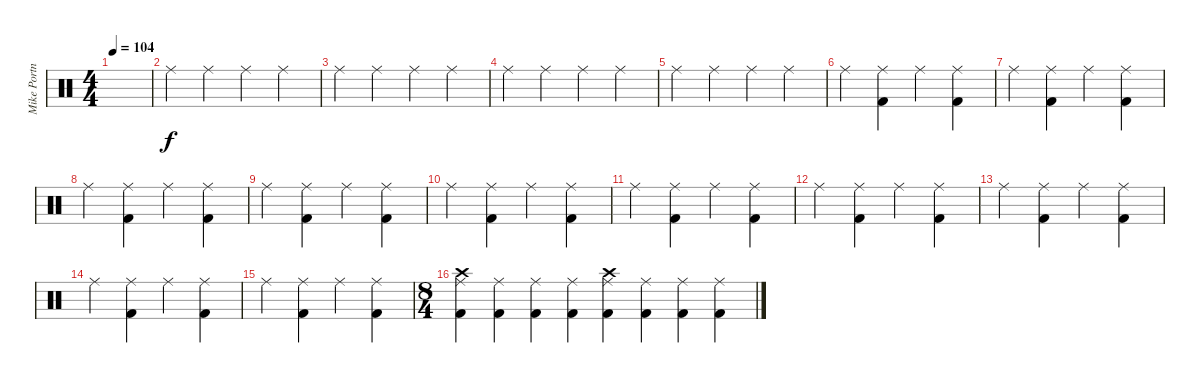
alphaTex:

\track ("Mike Portnoy" "Mike Portn") {instrument percussion}
\staff {score}
\articulation defaults
\ts (4 4)
\tempo 104
\clef neutral
\ks c
|
"Ride (middle)".4 "Ride (middle)".4 "Ride (middle)".4 "Ride (middle)".4 |
"Ride (middle)".4 "Ride (middle)".4 "Ride (middle)".4 "Ride (middle)".4 |
"Ride (middle)".4 "Ride (middle)".4 "Ride (middle)".4 "Ride (middle)".4 |
"Ride (middle)".4 "Ride (middle)".4 "Ride (middle)".4 "Ride (middle)".4 |
"Ride (middle)".4 ("Ride (middle)" "Kick (hit) 2").4 "Ride (middle)".4 ("Ride (middle)" "Kick (hit) 2").4 |
"Ride (middle)".4 ("Ride (middle)" "Kick (hit) 2").4 "Ride (middle)".4 ("Ride (middle)" "Kick (hit) 2").4 |
"Ride (middle)".4 ("Ride (middle)" "Kick (hit) 2").4 "Ride (middle)".4 ("Ride (middle)" "Kick (hit) 2").4 |
"Ride (middle)".4 ("Ride (middle)" "Kick (hit) 2").4 "Ride (middle)".4 ("Ride (middle)" "Kick (hit) 2").4 |
"Ride (middle)".4 ("Ride (middle)" "Kick (hit) 2").4 "Ride (middle)".4 ("Ride (middle)" "Kick (hit) 2").4 |
"Ride (middle)".4 ("Ride (middle)" "Kick (hit) 2").4 "Ride (middle)".4 ("Ride (middle)" "Kick (hit) 2").4 |
"Ride (middle)".4 ("Ride (middle)" "Kick (hit) 2").4 "Ride (middle)".4 ("Ride (middle)" "Kick (hit) 2").4 |
"Ride (middle)".4 ("Ride (middle)" "Kick (hit) 2").4 "Ride (middle)".4 ("Ride (middle)" "Kick (hit) 2").4 |
"Ride (middle)".4 ("Ride (middle)" "Kick (hit) 2").4 "Ride (middle)".4 ("Ride (middle)" "Kick (hit) 2").4 |
"Ride (middle)".4 ("Ride (middle)" "Kick (hit) 2").4 "Ride (middle)".4 ("Ride (middle)" "Kick (hit) 2").4 |
\ts (8 4)
("Ride (middle)" "Crash high (hit)" "Kick (hit) 2").4 ("Ride (middle)" "Kick (hit) 2").4 ("Ride (middle)" "Kick (hit) 2").4 ("Ride (middle)" "Kick (hit) 2").4 ("Ride (middle)" "Crash high (hit)" "Kick (hit) 2").4 ("Ride (middle)" "Kick (hit) 2").4 ("Ride (middle)" "Kick (hit) 2").4 ("Ride (middle)" "Kick (hit) 2").4
